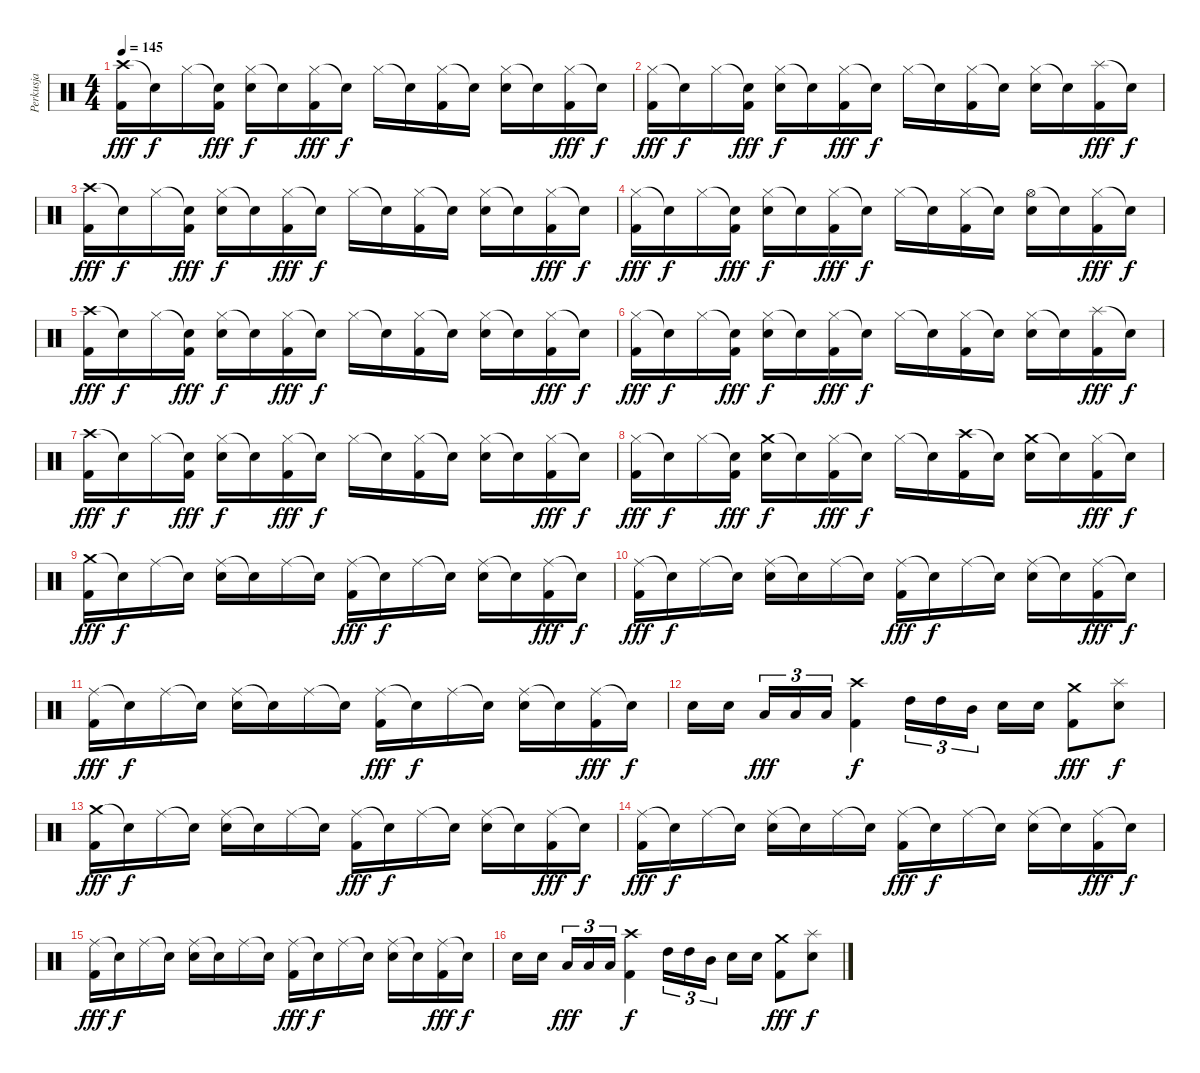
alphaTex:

\track ("Perkusja" "Perkusja") {instrument percussion}
\staff {score}
\articulation defaults
\ts (4 4)
\tempo 145
\clef neutral
\ks c
("Crash high (hit)" "Kick (hit) 2").16{dy fff} "Snare (hit)"{t}.16{dy f} "Hi-Hat (closed)".16 ("Snare (hit)"{t} "Kick (hit) 2").16{dy fff} ("Hi-Hat (closed)" "Electric Snare (hit)").16{dy f} "Snare (hit)"{t}.16 ("Hi-Hat (closed)" "Kick (hit) 2").16{dy fff} "Snare (hit)"{t}.16{dy f} "Hi-Hat (closed)".16 "Snare (hit)"{t}.16 ("Hi-Hat (closed)" "Kick (hit) 2").16 "Snare (hit)"{t}.16 ("Hi-Hat (closed)" "Electric Snare (hit)").16 "Snare (hit)"{t}.16 ("Hi-Hat (closed)" "Kick (hit) 2").16{dy fff} "Snare (hit)"{t}.16{dy f} |
("Hi-Hat (closed)" "Kick (hit) 2").16{dy fff} "Snare (hit)"{t}.16{dy f} "Hi-Hat (closed)".16 ("Snare (hit)"{t} "Kick (hit) 2").16{dy fff} ("Hi-Hat (closed)" "Electric Snare (hit)").16{dy f} "Snare (hit)"{t}.16 ("Hi-Hat (closed)" "Kick (hit) 2").16{dy fff} "Snare (hit)"{t}.16{dy f} "Hi-Hat (closed)".16 "Snare (hit)"{t}.16 ("Hi-Hat (closed)" "Kick (hit) 2").16 "Snare (hit)"{t}.16 ("Hi-Hat (closed)" "Electric Snare (hit)").16 "Snare (hit)"{t}.16 ("Splash (hit)" "Kick (hit) 2").16{dy fff} "Snare (hit)"{t}.16{dy f} |
("Crash high (hit)" "Kick (hit) 2").16{dy fff} "Snare (hit)"{t}.16{dy f} "Hi-Hat (closed)".16 ("Snare (hit)"{t} "Kick (hit) 2").16{dy fff} ("Hi-Hat (closed)" "Electric Snare (hit)").16{dy f} "Snare (hit)"{t}.16 ("Hi-Hat (closed)" "Kick (hit) 2").16{dy fff} "Snare (hit)"{t}.16{dy f} "Hi-Hat (closed)".16 "Snare (hit)"{t}.16 ("Hi-Hat (closed)" "Kick (hit) 2").16 "Snare (hit)"{t}.16 ("Hi-Hat (closed)" "Electric Snare (hit)").16 "Snare (hit)"{t}.16 ("Hi-Hat (closed)" "Kick (hit) 2").16{dy fff} "Snare (hit)"{t}.16{dy f} |
("Hi-Hat (closed)" "Kick (hit) 2").16{dy fff} "Snare (hit)"{t}.16{dy f} "Hi-Hat (closed)".16 ("Snare (hit)"{t} "Kick (hit) 2").16{dy fff} ("Hi-Hat (closed)" "Electric Snare (hit)").16{dy f} "Snare (hit)"{t}.16 ("Hi-Hat (closed)" "Kick (hit) 2").16{dy fff} "Snare (hit)"{t}.16{dy f} "Hi-Hat (closed)".16 "Snare (hit)"{t}.16 ("Hi-Hat (closed)" "Kick (hit) 2").16 "Snare (hit)"{t}.16 ("Hi-Hat (open)" "Electric Snare (hit)").16 "Snare (hit)"{t}.16 ("Hi-Hat (closed)" "Kick (hit) 2").16{dy fff} "Snare (hit)"{t}.16{dy f} |
("Crash high (hit)" "Kick (hit) 2").16{dy fff} "Snare (hit)"{t}.16{dy f} "Hi-Hat (closed)".16 ("Snare (hit)"{t} "Kick (hit) 2").16{dy fff} ("Hi-Hat (closed)" "Electric Snare (hit)").16{dy f} "Snare (hit)"{t}.16 ("Hi-Hat (closed)" "Kick (hit) 2").16{dy fff} "Snare (hit)"{t}.16{dy f} "Hi-Hat (closed)".16 "Snare (hit)"{t}.16 ("Hi-Hat (closed)" "Kick (hit) 2").16 "Snare (hit)"{t}.16 ("Hi-Hat (closed)" "Electric Snare (hit)").16 "Snare (hit)"{t}.16 ("Hi-Hat (closed)" "Kick (hit) 2").16{dy fff} "Snare (hit)"{t}.16{dy f} |
("Hi-Hat (closed)" "Kick (hit) 2").16{dy fff} "Snare (hit)"{t}.16{dy f} "Hi-Hat (closed)".16 ("Snare (hit)"{t} "Kick (hit) 2").16{dy fff} ("Hi-Hat (closed)" "Electric Snare (hit)").16{dy f} "Snare (hit)"{t}.16 ("Hi-Hat (closed)" "Kick (hit) 2").16{dy fff} "Snare (hit)"{t}.16{dy f} "Hi-Hat (closed)".16 "Snare (hit)"{t}.16 ("Hi-Hat (closed)" "Kick (hit) 2").16 "Snare (hit)"{t}.16 ("Hi-Hat (closed)" "Electric Snare (hit)").16 "Snare (hit)"{t}.16 ("Splash (hit)" "Kick (hit) 2").16{dy fff} "Snare (hit)"{t}.16{dy f} |
("Crash high (hit)" "Kick (hit) 2").16{dy fff} "Snare (hit)"{t}.16{dy f} "Hi-Hat (closed)".16 ("Snare (hit)"{t} "Kick (hit) 2").16{dy fff} ("Hi-Hat (closed)" "Electric Snare (hit)").16{dy f} "Snare (hit)"{t}.16 ("Hi-Hat (closed)" "Kick (hit) 2").16{dy fff} "Snare (hit)"{t}.16{dy f} "Hi-Hat (closed)".16 "Snare (hit)"{t}.16 ("Hi-Hat (closed)" "Kick (hit) 2").16 "Snare (hit)"{t}.16 ("Hi-Hat (closed)" "Electric Snare (hit)").16 "Snare (hit)"{t}.16 ("Hi-Hat (closed)" "Kick (hit) 2").16{dy fff} "Snare (hit)"{t}.16{dy f} |
("Hi-Hat (closed)" "Kick (hit) 2").16{dy fff} "Snare (hit)"{t}.16{dy f} "Hi-Hat (closed)".16 ("Snare (hit)"{t} "Kick (hit) 2").16{dy fff} ("Crash medium (hit)" "Electric Snare (hit)").16{dy f} "Snare (hit)"{t}.16 ("Hi-Hat (closed)" "Kick (hit) 2").16{dy fff} "Snare (hit)"{t}.16{dy f} "Hi-Hat (closed)".16 "Snare (hit)"{t}.16 ("Crash high (hit)" "Kick (hit) 2").16 "Snare (hit)"{t}.16 ("Crash medium (hit)" "Electric Snare (hit)").16 "Snare (hit)"{t}.16 ("Hi-Hat (closed)" "Kick (hit) 2").16{dy fff} "Snare (hit)"{t}.16{dy f} |
("Crash medium (hit)" "Kick (hit) 2").16{dy fff} "Snare (hit)"{t}.16{dy f} "Ride (middle)".16 "Snare (hit)"{t}.16 ("Ride (middle)" "Electric Snare (hit)").16 "Snare (hit)"{t}.16 "Ride (middle)".16 "Snare (hit)"{t}.16 ("Ride (middle)" "Kick (hit) 2").16{dy fff} "Snare (hit)"{t}.16{dy f} "Ride (middle)".16 "Snare (hit)"{t}.16 ("Ride (middle)" "Electric Snare (hit)").16 "Snare (hit)"{t}.16 ("Ride (middle)" "Kick (hit) 2").16{dy fff} "Snare (hit)"{t}.16{dy f} |
("Ride (middle)" "Kick (hit) 2").16{dy fff} "Snare (hit)"{t}.16{dy f} "Ride (middle)".16 "Snare (hit)"{t}.16 ("Ride (middle)" "Electric Snare (hit)").16 "Snare (hit)"{t}.16 "Ride (middle)".16 "Snare (hit)"{t}.16 ("Ride (middle)" "Kick (hit) 2").16{dy fff} "Snare (hit)"{t}.16{dy f} "Ride (middle)".16 "Snare (hit)"{t}.16 ("Ride (middle)" "Electric Snare (hit)").16 "Snare (hit)"{t}.16 ("Ride (middle)" "Kick (hit) 2").16{dy fff} "Snare (hit)"{t}.16{dy f} |
("Ride (middle)" "Kick (hit) 2").16{dy fff} "Snare (hit)"{t}.16{dy f} "Ride (middle)".16 "Snare (hit)"{t}.16 ("Ride (middle)" "Electric Snare (hit)").16 "Snare (hit)"{t}.16 "Ride (middle)".16 "Snare (hit)"{t}.16 ("Ride (middle)" "Kick (hit) 2").16{dy fff} "Snare (hit)"{t}.16{dy f} "Ride (middle)".16 "Snare (hit)"{t}.16 ("Ride (middle)" "Electric Snare (hit)").16 "Snare (hit)"{t}.16 ("Ride (middle)" "Kick (hit) 2").16{dy fff} "Snare (hit)"{t}.16{dy f} |
"Electric Snare (hit)".16 "Electric Snare (hit)".16 "Low Tom (hit)".16{tu (3 2) dy fff} "Low Tom (hit)".16{tu (3 2)} "Low Tom (hit)".16{tu (3 2)} ("Crash high (hit)" "Kick (hit) 2").4{dy f} "High Tom (hit)".16{tu (3 2)} "High Tom (hit)".16{tu (3 2)} "Mid Tom (hit)".16{tu (3 2)} "Electric Snare (hit)".16 "Electric Snare (hit)".16 ("Crash medium (hit)" "Kick (hit) 2").8{dy fff} ("Splash (hit)" "Electric Snare (hit)").8{dy f} |
("Crash medium (hit)" "Kick (hit) 2").16{dy fff} "Snare (hit)"{t}.16{dy f} "Ride (middle)".16 "Snare (hit)"{t}.16 ("Ride (middle)" "Electric Snare (hit)").16 "Snare (hit)"{t}.16 "Ride (middle)".16 "Snare (hit)"{t}.16 ("Ride (middle)" "Kick (hit) 2").16{dy fff} "Snare (hit)"{t}.16{dy f} "Ride (middle)".16 "Snare (hit)"{t}.16 ("Ride (middle)" "Electric Snare (hit)").16 "Snare (hit)"{t}.16 ("Ride (middle)" "Kick (hit) 2").16{dy fff} "Snare (hit)"{t}.16{dy f} |
("Ride (middle)" "Kick (hit) 2").16{dy fff} "Snare (hit)"{t}.16{dy f} "Ride (middle)".16 "Snare (hit)"{t}.16 ("Ride (middle)" "Electric Snare (hit)").16 "Snare (hit)"{t}.16 "Ride (middle)".16 "Snare (hit)"{t}.16 ("Ride (middle)" "Kick (hit) 2").16{dy fff} "Snare (hit)"{t}.16{dy f} "Ride (middle)".16 "Snare (hit)"{t}.16 ("Ride (middle)" "Electric Snare (hit)").16 "Snare (hit)"{t}.16 ("Ride (middle)" "Kick (hit) 2").16{dy fff} "Snare (hit)"{t}.16{dy f} |
("Ride (middle)" "Kick (hit) 2").16{dy fff} "Snare (hit)"{t}.16{dy f} "Ride (middle)".16 "Snare (hit)"{t}.16 ("Ride (middle)" "Electric Snare (hit)").16 "Snare (hit)"{t}.16 "Ride (middle)".16 "Snare (hit)"{t}.16 ("Ride (middle)" "Kick (hit) 2").16{dy fff} "Snare (hit)"{t}.16{dy f} "Ride (middle)".16 "Snare (hit)"{t}.16 ("Ride (middle)" "Electric Snare (hit)").16 "Snare (hit)"{t}.16 ("Ride (middle)" "Kick (hit) 2").16{dy fff} "Snare (hit)"{t}.16{dy f} |
"Electric Snare (hit)".16 "Electric Snare (hit)".16 "Low Tom (hit)".16{tu (3 2) dy fff} "Low Tom (hit)".16{tu (3 2)} "Low Tom (hit)".16{tu (3 2)} ("Crash high (hit)" "Kick (hit) 2").4{dy f} "High Tom (hit)".16{tu (3 2)} "High Tom (hit)".16{tu (3 2)} "Mid Tom (hit)".16{tu (3 2)} "Electric Snare (hit)".16 "Electric Snare (hit)".16 ("Crash medium (hit)" "Kick (hit) 2").8{dy fff} ("Splash (hit)" "Electric Snare (hit)").8{dy f}
